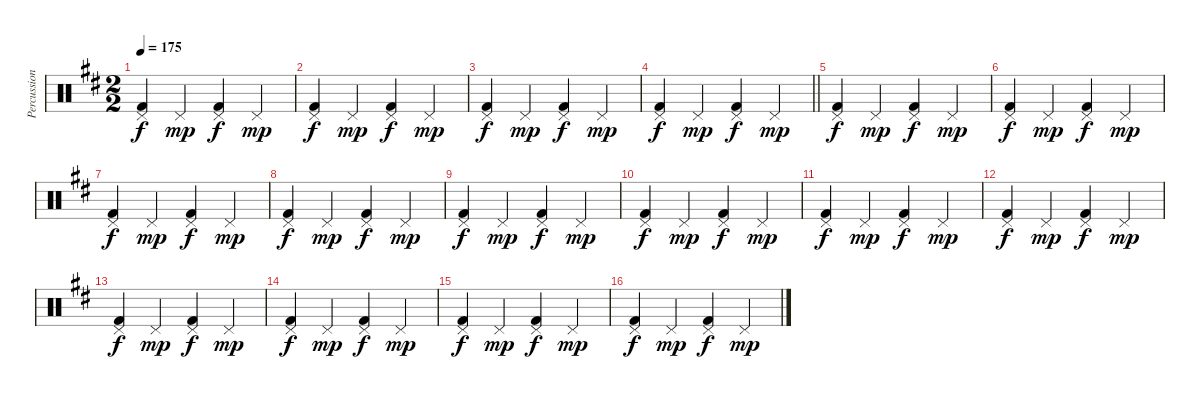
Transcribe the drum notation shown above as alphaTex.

\track ("Percussion" "Percussion") {instrument percussion}
\staff {score}
\articulation defaults
\ts (2 2)
\tempo 175
\clef neutral
\ks d
("Pedal Hi-Hat (hit)" "Kick (hit) 2").4{dy f} "Pedal Hi-Hat (hit)".4{dy mp} ("Pedal Hi-Hat (hit)" "Kick (hit) 2").4{dy f} "Pedal Hi-Hat (hit)".4{dy mp} |
("Pedal Hi-Hat (hit)" "Kick (hit) 2").4{dy f} "Pedal Hi-Hat (hit)".4{dy mp} ("Pedal Hi-Hat (hit)" "Kick (hit) 2").4{dy f} "Pedal Hi-Hat (hit)".4{dy mp} |
("Pedal Hi-Hat (hit)" "Kick (hit) 2").4{dy f} "Pedal Hi-Hat (hit)".4{dy mp} ("Pedal Hi-Hat (hit)" "Kick (hit) 2").4{dy f} "Pedal Hi-Hat (hit)".4{dy mp} |
\barLineRight lightlight
("Pedal Hi-Hat (hit)" "Kick (hit) 2").4{dy f} "Pedal Hi-Hat (hit)".4{dy mp} ("Pedal Hi-Hat (hit)" "Kick (hit) 2").4{dy f} "Pedal Hi-Hat (hit)".4{dy mp} |
("Pedal Hi-Hat (hit)" "Kick (hit) 2").4{dy f} "Pedal Hi-Hat (hit)".4{dy mp} ("Pedal Hi-Hat (hit)" "Kick (hit) 2").4{dy f} "Pedal Hi-Hat (hit)".4{dy mp} |
("Pedal Hi-Hat (hit)" "Kick (hit) 2").4{dy f} "Pedal Hi-Hat (hit)".4{dy mp} ("Pedal Hi-Hat (hit)" "Kick (hit) 2").4{dy f} "Pedal Hi-Hat (hit)".4{dy mp} |
("Pedal Hi-Hat (hit)" "Kick (hit) 2").4{dy f} "Pedal Hi-Hat (hit)".4{dy mp} ("Pedal Hi-Hat (hit)" "Kick (hit) 2").4{dy f} "Pedal Hi-Hat (hit)".4{dy mp} |
("Pedal Hi-Hat (hit)" "Kick (hit) 2").4{dy f} "Pedal Hi-Hat (hit)".4{dy mp} ("Pedal Hi-Hat (hit)" "Kick (hit) 2").4{dy f} "Pedal Hi-Hat (hit)".4{dy mp} |
("Pedal Hi-Hat (hit)" "Kick (hit) 2").4{dy f} "Pedal Hi-Hat (hit)".4{dy mp} ("Pedal Hi-Hat (hit)" "Kick (hit) 2").4{dy f} "Pedal Hi-Hat (hit)".4{dy mp} |
("Pedal Hi-Hat (hit)" "Kick (hit) 2").4{dy f} "Pedal Hi-Hat (hit)".4{dy mp} ("Pedal Hi-Hat (hit)" "Kick (hit) 2").4{dy f} "Pedal Hi-Hat (hit)".4{dy mp} |
("Pedal Hi-Hat (hit)" "Kick (hit) 2").4{dy f} "Pedal Hi-Hat (hit)".4{dy mp} ("Pedal Hi-Hat (hit)" "Kick (hit) 2").4{dy f} "Pedal Hi-Hat (hit)".4{dy mp} |
("Pedal Hi-Hat (hit)" "Kick (hit) 2").4{dy f} "Pedal Hi-Hat (hit)".4{dy mp} ("Pedal Hi-Hat (hit)" "Kick (hit) 2").4{dy f} "Pedal Hi-Hat (hit)".4{dy mp} |
("Pedal Hi-Hat (hit)" "Kick (hit) 2").4{dy f} "Pedal Hi-Hat (hit)".4{dy mp} ("Pedal Hi-Hat (hit)" "Kick (hit) 2").4{dy f} "Pedal Hi-Hat (hit)".4{dy mp} |
("Pedal Hi-Hat (hit)" "Kick (hit) 2").4{dy f} "Pedal Hi-Hat (hit)".4{dy mp} ("Pedal Hi-Hat (hit)" "Kick (hit) 2").4{dy f} "Pedal Hi-Hat (hit)".4{dy mp} |
("Pedal Hi-Hat (hit)" "Kick (hit) 2").4{dy f} "Pedal Hi-Hat (hit)".4{dy mp} ("Pedal Hi-Hat (hit)" "Kick (hit) 2").4{dy f} "Pedal Hi-Hat (hit)".4{dy mp} |
("Pedal Hi-Hat (hit)" "Kick (hit) 2").4{dy f} "Pedal Hi-Hat (hit)".4{dy mp} ("Pedal Hi-Hat (hit)" "Kick (hit) 2").4{dy f} "Pedal Hi-Hat (hit)".4{dy mp}
